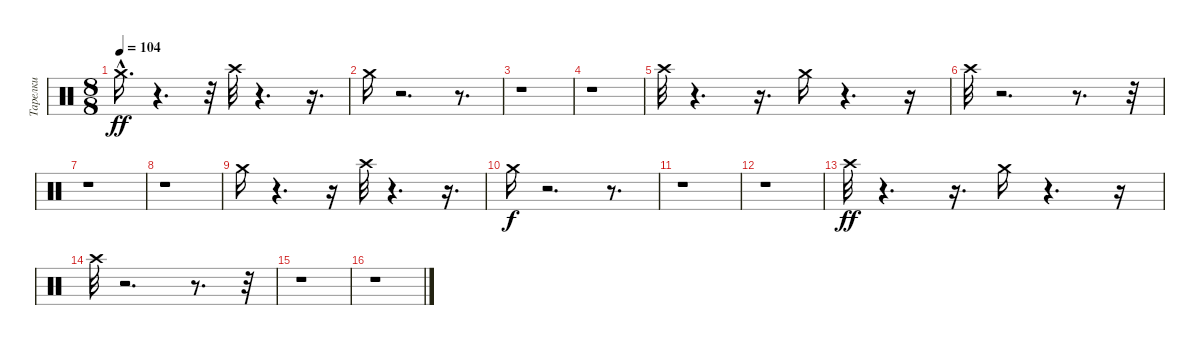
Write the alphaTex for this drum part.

\track ("Тарелки" "Тарелки") {instrument percussion}
\staff {score}
\articulation defaults
\ts (8 8)
\tempo 104
\clef neutral
\ks c "Crash medium (hit)"{hac}.16{d dy ff}
r.4{d} r.32 "Crash high (hit)".32 r.4{d} r.16{d} |
"Crash medium (hit)".16 r.2{d} r.8{d} |
r.1 |
r.1 |
"Crash high (hit)".32 r.4{d} r.16{d} "Crash medium (hit)".16 r.4{d} r.16 |
"Crash high (hit)".32 r.2{d} r.8{d} r.32 |
r.1 |
r.1 |
"Crash medium (hit)".16 r.4{d} r.16 "Crash high (hit)".32 r.4{d} r.16{d} |
"Crash medium (hit)".16{dy f} r.2{d} r.8{d} |
r.1 |
r.1 |
"Crash high (hit)".32{dy ff} r.4{d} r.16{d} "Crash medium (hit)".16 r.4{d} r.16 |
"Crash high (hit)".32 r.2{d} r.8{d} r.32 |
r.1 |
r.1
